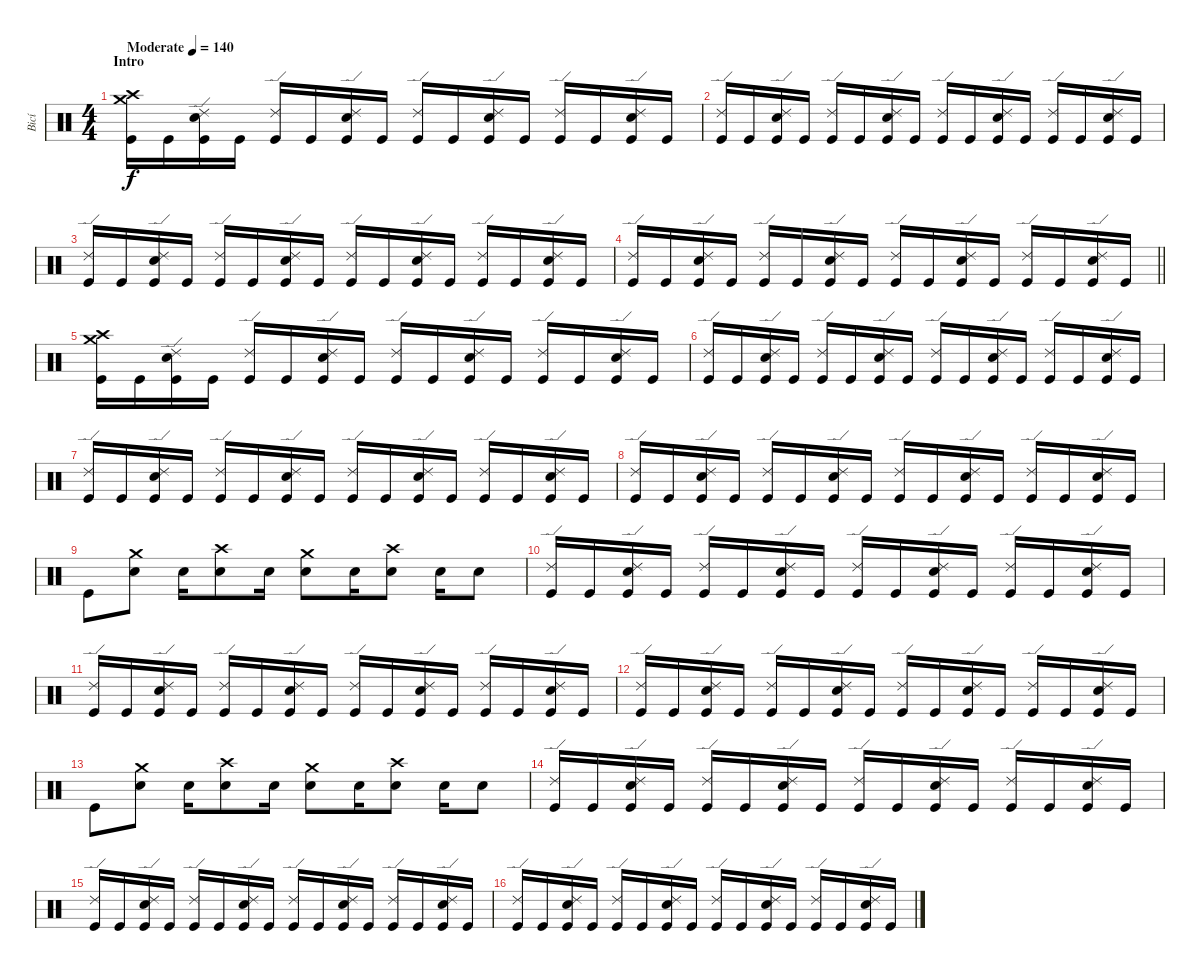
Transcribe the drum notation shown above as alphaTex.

\track ("Bicí" "Bicí") {instrument percussion}
\staff {score}
\articulation defaults
\ts (4 4)
\section ("" "Intro")
\tempo (140 "Moderate")
\clef neutral
\ks c
("Crash high (hit)" "Crash medium (hit)" "Kick (hit)").16{dy f} "Kick (hit)".16 ("Ride (edge) 2" "Electric Snare (hit)" "Kick (hit)").16 "Kick (hit)".16 ("Ride (edge) 2" "Kick (hit)").16 "Kick (hit)".16 ("Ride (edge) 2" "Electric Snare (hit)" "Kick (hit)").16 "Kick (hit)".16 ("Ride (edge) 2" "Kick (hit)").16 "Kick (hit)".16 ("Ride (edge) 2" "Electric Snare (hit)" "Kick (hit)").16 "Kick (hit)".16 ("Ride (edge) 2" "Kick (hit)").16 "Kick (hit)".16 ("Ride (edge) 2" "Electric Snare (hit)" "Kick (hit)").16 "Kick (hit)".16 |
("Ride (edge) 2" "Kick (hit)").16 "Kick (hit)".16 ("Ride (edge) 2" "Electric Snare (hit)" "Kick (hit)").16 "Kick (hit)".16 ("Ride (edge) 2" "Kick (hit)").16 "Kick (hit)".16 ("Ride (edge) 2" "Electric Snare (hit)" "Kick (hit)").16 "Kick (hit)".16 ("Ride (edge) 2" "Kick (hit)").16 "Kick (hit)".16 ("Ride (edge) 2" "Electric Snare (hit)" "Kick (hit)").16 "Kick (hit)".16 ("Ride (edge) 2" "Kick (hit)").16 "Kick (hit)".16 ("Ride (edge) 2" "Electric Snare (hit)" "Kick (hit)").16 "Kick (hit)".16 |
("Ride (edge) 2" "Kick (hit)").16 "Kick (hit)".16 ("Ride (edge) 2" "Electric Snare (hit)" "Kick (hit)").16 "Kick (hit)".16 ("Ride (edge) 2" "Kick (hit)").16 "Kick (hit)".16 ("Ride (edge) 2" "Electric Snare (hit)" "Kick (hit)").16 "Kick (hit)".16 ("Ride (edge) 2" "Kick (hit)").16 "Kick (hit)".16 ("Ride (edge) 2" "Electric Snare (hit)" "Kick (hit)").16 "Kick (hit)".16 ("Ride (edge) 2" "Kick (hit)").16 "Kick (hit)".16 ("Ride (edge) 2" "Electric Snare (hit)" "Kick (hit)").16 "Kick (hit)".16 |
\barLineRight lightlight
("Ride (edge) 2" "Kick (hit)").16 "Kick (hit)".16 ("Ride (edge) 2" "Electric Snare (hit)" "Kick (hit)").16 "Kick (hit)".16 ("Ride (edge) 2" "Kick (hit)").16 "Kick (hit)".16 ("Ride (edge) 2" "Electric Snare (hit)" "Kick (hit)").16 "Kick (hit)".16 ("Ride (edge) 2" "Kick (hit)").16 "Kick (hit)".16 ("Ride (edge) 2" "Electric Snare (hit)" "Kick (hit)").16 "Kick (hit)".16 ("Ride (edge) 2" "Kick (hit)").16 "Kick (hit)".16 ("Ride (edge) 2" "Electric Snare (hit)" "Kick (hit)").16 "Kick (hit)".16 |
\section ("" "")
("Crash medium (hit)" "Crash high (hit)" "Kick (hit)").16 "Kick (hit)".16 ("Ride (edge) 2" "Electric Snare (hit)" "Kick (hit)").16 "Kick (hit)".16 ("Ride (edge) 2" "Kick (hit)").16 "Kick (hit)".16 ("Ride (edge) 2" "Electric Snare (hit)" "Kick (hit)").16 "Kick (hit)".16 ("Ride (edge) 2" "Kick (hit)").16 "Kick (hit)".16 ("Ride (edge) 2" "Electric Snare (hit)" "Kick (hit)").16 "Kick (hit)".16 ("Ride (edge) 2" "Kick (hit)").16 "Kick (hit)".16 ("Ride (edge) 2" "Electric Snare (hit)" "Kick (hit)").16 "Kick (hit)".16 |
("Ride (edge) 2" "Kick (hit)").16 "Kick (hit)".16 ("Ride (edge) 2" "Electric Snare (hit)" "Kick (hit)").16 "Kick (hit)".16 ("Ride (edge) 2" "Kick (hit)").16 "Kick (hit)".16 ("Ride (edge) 2" "Electric Snare (hit)" "Kick (hit)").16 "Kick (hit)".16 ("Ride (edge) 2" "Kick (hit)").16 "Kick (hit)".16 ("Ride (edge) 2" "Electric Snare (hit)" "Kick (hit)").16 "Kick (hit)".16 ("Ride (edge) 2" "Kick (hit)").16 "Kick (hit)".16 ("Ride (edge) 2" "Electric Snare (hit)" "Kick (hit)").16 "Kick (hit)".16 |
("Ride (edge) 2" "Kick (hit)").16 "Kick (hit)".16 ("Ride (edge) 2" "Electric Snare (hit)" "Kick (hit)").16 "Kick (hit)".16 ("Ride (edge) 2" "Kick (hit)").16 "Kick (hit)".16 ("Ride (edge) 2" "Electric Snare (hit)" "Kick (hit)").16 "Kick (hit)".16 ("Ride (edge) 2" "Kick (hit)").16 "Kick (hit)".16 ("Ride (edge) 2" "Electric Snare (hit)" "Kick (hit)").16 "Kick (hit)".16 ("Ride (edge) 2" "Kick (hit)").16 "Kick (hit)".16 ("Ride (edge) 2" "Electric Snare (hit)" "Kick (hit)").16 "Kick (hit)".16 |
("Ride (edge) 2" "Kick (hit)").16 "Kick (hit)".16 ("Ride (edge) 2" "Electric Snare (hit)" "Kick (hit)").16 "Kick (hit)".16 ("Ride (edge) 2" "Kick (hit)").16 "Kick (hit)".16 ("Ride (edge) 2" "Electric Snare (hit)" "Kick (hit)").16 "Kick (hit)".16 ("Ride (edge) 2" "Kick (hit)").16 "Kick (hit)".16 ("Ride (edge) 2" "Electric Snare (hit)" "Kick (hit)").16 "Kick (hit)".16 ("Ride (edge) 2" "Kick (hit)").16 "Kick (hit)".16 ("Ride (edge) 2" "Electric Snare (hit)" "Kick (hit)").16 "Kick (hit)".16 |
"Kick (hit)".8 ("Crash medium (hit)" "Electric Snare (hit)").8 "Snare (hit)".16 ("Crash high (hit)" "Electric Snare (hit)").8 "Snare (hit)".16 ("Crash medium (hit)" "Electric Snare (hit)").8 "Snare (hit)".16 ("Crash high (hit)" "Electric Snare (hit)").8 "Snare (hit)".16 "Electric Snare (hit)".8 |
("Ride (edge) 2" "Kick (hit)").16 "Kick (hit)".16 ("Ride (edge) 2" "Electric Snare (hit)" "Kick (hit)").16 "Kick (hit)".16 ("Ride (edge) 2" "Kick (hit)").16 "Kick (hit)".16 ("Ride (edge) 2" "Electric Snare (hit)" "Kick (hit)").16 "Kick (hit)".16 ("Ride (edge) 2" "Kick (hit)").16 "Kick (hit)".16 ("Ride (edge) 2" "Electric Snare (hit)" "Kick (hit)").16 "Kick (hit)".16 ("Ride (edge) 2" "Kick (hit)").16 "Kick (hit)".16 ("Ride (edge) 2" "Electric Snare (hit)" "Kick (hit)").16 "Kick (hit)".16 |
("Ride (edge) 2" "Kick (hit)").16 "Kick (hit)".16 ("Ride (edge) 2" "Electric Snare (hit)" "Kick (hit)").16 "Kick (hit)".16 ("Ride (edge) 2" "Kick (hit)").16 "Kick (hit)".16 ("Ride (edge) 2" "Electric Snare (hit)" "Kick (hit)").16 "Kick (hit)".16 ("Ride (edge) 2" "Kick (hit)").16 "Kick (hit)".16 ("Ride (edge) 2" "Electric Snare (hit)" "Kick (hit)").16 "Kick (hit)".16 ("Ride (edge) 2" "Kick (hit)").16 "Kick (hit)".16 ("Ride (edge) 2" "Electric Snare (hit)" "Kick (hit)").16 "Kick (hit)".16 |
("Ride (edge) 2" "Kick (hit)").16 "Kick (hit)".16 ("Ride (edge) 2" "Electric Snare (hit)" "Kick (hit)").16 "Kick (hit)".16 ("Ride (edge) 2" "Kick (hit)").16 "Kick (hit)".16 ("Ride (edge) 2" "Electric Snare (hit)" "Kick (hit)").16 "Kick (hit)".16 ("Ride (edge) 2" "Kick (hit)").16 "Kick (hit)".16 ("Ride (edge) 2" "Electric Snare (hit)" "Kick (hit)").16 "Kick (hit)".16 ("Ride (edge) 2" "Kick (hit)").16 "Kick (hit)".16 ("Ride (edge) 2" "Electric Snare (hit)" "Kick (hit)").16 "Kick (hit)".16 |
"Kick (hit)".8 ("Crash medium (hit)" "Electric Snare (hit)").8 "Snare (hit)".16 ("Crash high (hit)" "Electric Snare (hit)").8 "Snare (hit)".16 ("Crash medium (hit)" "Electric Snare (hit)").8 "Snare (hit)".16 ("Crash high (hit)" "Electric Snare (hit)").8 "Snare (hit)".16 "Electric Snare (hit)".8 |
("Ride (edge) 2" "Kick (hit)").16 "Kick (hit)".16 ("Ride (edge) 2" "Electric Snare (hit)" "Kick (hit)").16 "Kick (hit)".16 ("Ride (edge) 2" "Kick (hit)").16 "Kick (hit)".16 ("Ride (edge) 2" "Electric Snare (hit)" "Kick (hit)").16 "Kick (hit)".16 ("Ride (edge) 2" "Kick (hit)").16 "Kick (hit)".16 ("Ride (edge) 2" "Electric Snare (hit)" "Kick (hit)").16 "Kick (hit)".16 ("Ride (edge) 2" "Kick (hit)").16 "Kick (hit)".16 ("Ride (edge) 2" "Electric Snare (hit)" "Kick (hit)").16 "Kick (hit)".16 |
("Ride (edge) 2" "Kick (hit)").16 "Kick (hit)".16 ("Ride (edge) 2" "Electric Snare (hit)" "Kick (hit)").16 "Kick (hit)".16 ("Ride (edge) 2" "Kick (hit)").16 "Kick (hit)".16 ("Ride (edge) 2" "Electric Snare (hit)" "Kick (hit)").16 "Kick (hit)".16 ("Ride (edge) 2" "Kick (hit)").16 "Kick (hit)".16 ("Ride (edge) 2" "Electric Snare (hit)" "Kick (hit)").16 "Kick (hit)".16 ("Ride (edge) 2" "Kick (hit)").16 "Kick (hit)".16 ("Ride (edge) 2" "Electric Snare (hit)" "Kick (hit)").16 "Kick (hit)".16 |
("Ride (edge) 2" "Kick (hit)").16 "Kick (hit)".16 ("Ride (edge) 2" "Electric Snare (hit)" "Kick (hit)").16 "Kick (hit)".16 ("Ride (edge) 2" "Kick (hit)").16 "Kick (hit)".16 ("Ride (edge) 2" "Electric Snare (hit)" "Kick (hit)").16 "Kick (hit)".16 ("Ride (edge) 2" "Kick (hit)").16 "Kick (hit)".16 ("Ride (edge) 2" "Electric Snare (hit)" "Kick (hit)").16 "Kick (hit)".16 ("Ride (edge) 2" "Kick (hit)").16 "Kick (hit)".16 ("Ride (edge) 2" "Electric Snare (hit)" "Kick (hit)").16 "Kick (hit)".16
